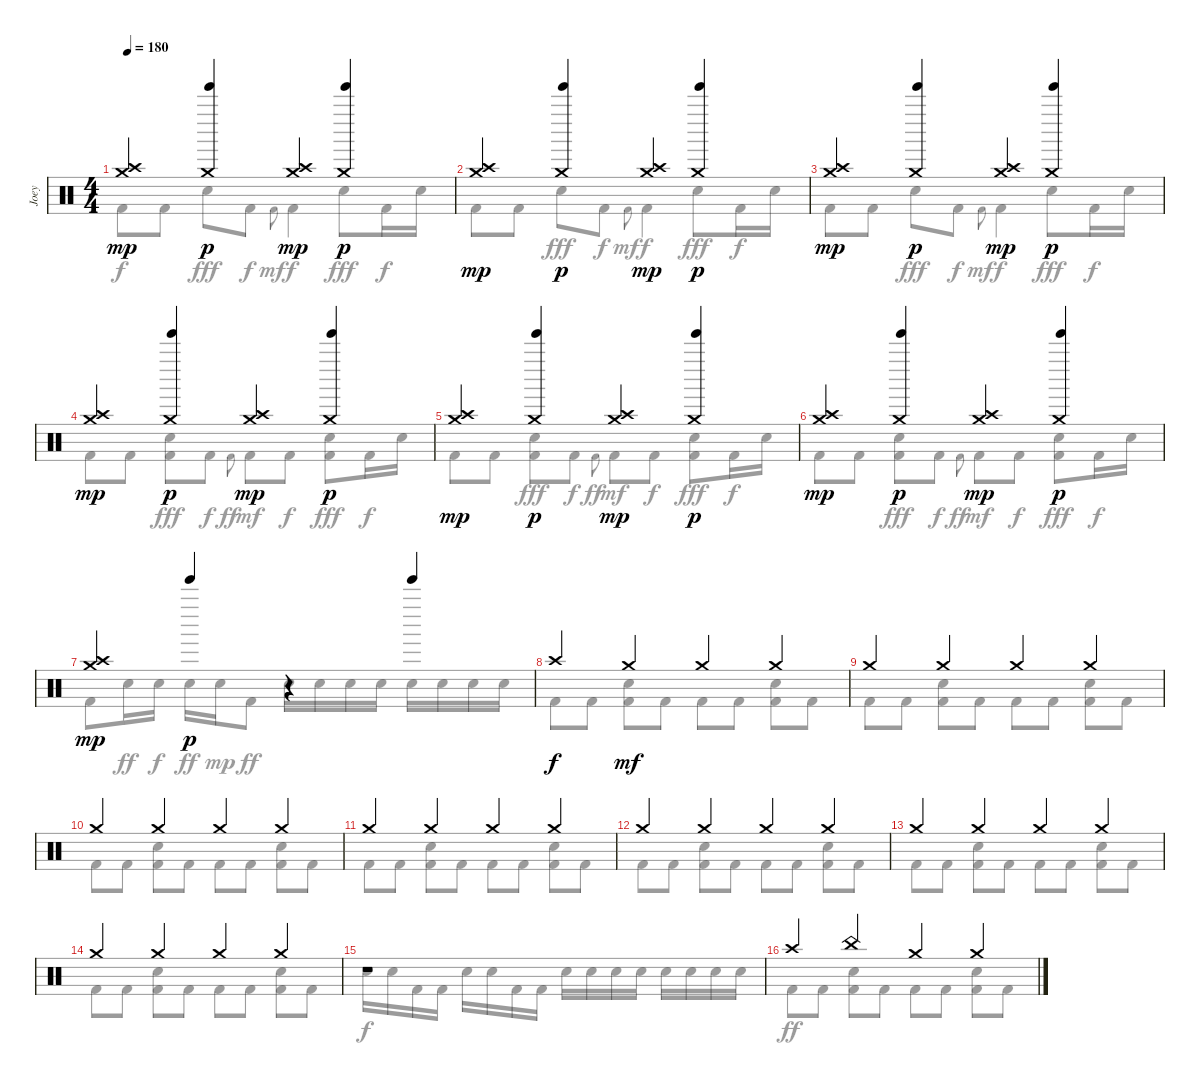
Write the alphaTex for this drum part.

\track ("Joey" "Joey") {instrument percussion}
\staff {score}
\articulation defaults
\voice
\ts (4 4)
\tempo 180
\clef neutral
\ks c
("Crash medium (hit)" "Crash high (hit)").4{dy mp} ("Crash medium (hit)" "Tinkle Bell (hit)").4{dy p} ("Crash medium (hit)" "Crash high (hit)").4{dy mp} ("Crash medium (hit)" "Tinkle Bell (hit)").4{dy p} |
("Crash medium (hit)" "Crash high (hit)").4{dy mp} ("Crash medium (hit)" "Tinkle Bell (hit)").4{dy p} ("Crash medium (hit)" "Crash high (hit)").4{dy mp} ("Crash medium (hit)" "Tinkle Bell (hit)").4{dy p} |
("Crash medium (hit)" "Crash high (hit)").4{dy mp} ("Crash medium (hit)" "Tinkle Bell (hit)").4{dy p} ("Crash medium (hit)" "Crash high (hit)").4{dy mp} ("Crash medium (hit)" "Tinkle Bell (hit)").4{dy p} |
("Crash medium (hit)" "Crash high (hit)").4{dy mp} ("Crash medium (hit)" "Tinkle Bell (hit)").4{dy p} ("Crash medium (hit)" "Crash high (hit)").4{dy mp} ("Crash medium (hit)" "Tinkle Bell (hit)").4{dy p} |
("Crash medium (hit)" "Crash high (hit)").4{dy mp} ("Crash medium (hit)" "Tinkle Bell (hit)").4{dy p} ("Crash medium (hit)" "Crash high (hit)").4{dy mp} ("Crash medium (hit)" "Tinkle Bell (hit)").4{dy p} |
("Crash medium (hit)" "Crash high (hit)").4{dy mp} ("Crash medium (hit)" "Tinkle Bell (hit)").4{dy p} ("Crash medium (hit)" "Crash high (hit)").4{dy mp} ("Crash medium (hit)" "Tinkle Bell (hit)").4{dy p} |
("Crash medium (hit)" "Crash high (hit)").4{dy mp} "Tinkle Bell (hit)".4{dy p} r.4 "Tinkle Bell (hit)".4 |
"Crash high (hit)".4{dy f} "Crash medium (hit)".4{dy mf} "Crash medium (hit)".4 "Crash medium (hit)".4 |
"Crash medium (hit)".4 "Crash medium (hit)".4 "Crash medium (hit)".4 "Crash medium (hit)".4 |
"Crash medium (hit)".4 "Crash medium (hit)".4 "Crash medium (hit)".4 "Crash medium (hit)".4 |
"Crash medium (hit)".4 "Crash medium (hit)".4 "Crash medium (hit)".4 "Crash medium (hit)".4 |
"Crash medium (hit)".4 "Crash medium (hit)".4 "Crash medium (hit)".4 "Crash medium (hit)".4 |
"Crash medium (hit)".4 "Crash medium (hit)".4 "Crash medium (hit)".4 "Crash medium (hit)".4 |
"Crash medium (hit)".4 "Crash medium (hit)".4 "Crash medium (hit)".4 "Crash medium (hit)".4 |
r.1 |
"Crash high (hit)".4 "China (hit)".4 "Crash medium (hit)".4 "Crash medium (hit)".4
\voice
\clef neutral
\ottava regular
\simile none
\ks c "Kick (hit) 2".8{dy f} "Kick (hit) 2".8 "Electric Snare (hit)".8{dy fff} "Kick (hit) 2".8{dy f} "Kick (hit) 2".8{gr onbeat dy mf} "Kick (hit) 2".4{dy f} "Electric Snare (hit)".8{dy fff} "Kick (hit) 2".16{dy f} "Electric Snare (hit)".16
|
"Kick (hit) 2".8 "Kick (hit) 2".8 "Electric Snare (hit)".8{dy fff} "Kick (hit) 2".8{dy f} "Kick (hit) 2".8{gr onbeat dy mf} "Kick (hit) 2".4{dy f} "Electric Snare (hit)".8{dy fff} "Kick (hit) 2".16{dy f} "Electric Snare (hit)".16 |
"Kick (hit) 2".8 "Kick (hit) 2".8 "Electric Snare (hit)".8{dy fff} "Kick (hit) 2".8{dy f} "Kick (hit) 2".8{gr onbeat dy mf} "Kick (hit) 2".4{dy f} "Electric Snare (hit)".8{dy fff} "Kick (hit) 2".16{dy f} "Electric Snare (hit)".16 |
"Kick (hit) 2".8 "Kick (hit) 2".8 ("Electric Snare (hit)" "Kick (hit) 2").8{dy fff} "Kick (hit) 2".8{dy f} "Kick (hit) 2".8{gr onbeat dy ff} "Kick (hit) 2".8{dy mf} "Kick (hit) 2".8{dy f} ("Electric Snare (hit)" "Kick (hit) 2").8{dy fff} "Kick (hit) 2".16{dy f} "Electric Snare (hit)".16 |
"Kick (hit) 2".8 "Kick (hit) 2".8 ("Electric Snare (hit)" "Kick (hit) 2").8{dy fff} "Kick (hit) 2".8{dy f} "Kick (hit) 2".8{gr onbeat dy ff} "Kick (hit) 2".8{dy mf} "Kick (hit) 2".8{dy f} ("Electric Snare (hit)" "Kick (hit) 2").8{dy fff} "Kick (hit) 2".16{dy f} "Electric Snare (hit)".16 |
"Kick (hit) 2".8 "Kick (hit) 2".8 ("Electric Snare (hit)" "Kick (hit) 2").8{dy fff} "Kick (hit) 2".8{dy f} "Kick (hit) 2".8{gr onbeat dy ff} "Kick (hit) 2".8{dy mf} "Kick (hit) 2".8{dy f} ("Electric Snare (hit)" "Kick (hit) 2").8{dy fff} "Kick (hit) 2".16{dy f} "Electric Snare (hit)".16 |
"Kick (hit) 2".8 "Electric Snare (hit)".16{dy ff} "Electric Snare (hit)".16{dy f} "Electric Snare (hit)".16{dy ff} "Electric Snare (hit)".16{dy mp} "Kick (hit) 2".8{dy ff} "Electric Snare (hit)".16 "Electric Snare (hit)".16 "Electric Snare (hit)".16 "Electric Snare (hit)".16 "Electric Snare (hit)".16 "Electric Snare (hit)".16 "Electric Snare (hit)".16 "Electric Snare (hit)".16 |
"Kick (hit) 2".8 "Kick (hit) 2".8 ("Electric Snare (hit)" "Kick (hit) 2").8 "Kick (hit) 2".8 "Kick (hit) 2".8 "Kick (hit) 2".8 ("Electric Snare (hit)" "Kick (hit) 2").8 "Kick (hit) 2".8 |
"Kick (hit) 2".8 "Kick (hit) 2".8 ("Electric Snare (hit)" "Kick (hit) 2").8 "Kick (hit) 2".8 "Kick (hit) 2".8 "Kick (hit) 2".8 ("Electric Snare (hit)" "Kick (hit) 2").8 "Kick (hit) 2".8 |
"Kick (hit) 2".8 "Kick (hit) 2".8 ("Electric Snare (hit)" "Kick (hit) 2").8 "Kick (hit) 2".8 "Kick (hit) 2".8 "Kick (hit) 2".8 ("Electric Snare (hit)" "Kick (hit) 2").8 "Kick (hit) 2".8 |
"Kick (hit) 2".8 "Kick (hit) 2".8 ("Electric Snare (hit)" "Kick (hit) 2").8 "Kick (hit) 2".8 "Kick (hit) 2".8 "Kick (hit) 2".8 ("Electric Snare (hit)" "Kick (hit) 2").8 "Kick (hit) 2".8 |
"Kick (hit) 2".8 "Kick (hit) 2".8 ("Electric Snare (hit)" "Kick (hit) 2").8 "Kick (hit) 2".8 "Kick (hit) 2".8 "Kick (hit) 2".8 ("Electric Snare (hit)" "Kick (hit) 2").8 "Kick (hit) 2".8 |
"Kick (hit) 2".8 "Kick (hit) 2".8 ("Electric Snare (hit)" "Kick (hit) 2").8 "Kick (hit) 2".8 "Kick (hit) 2".8 "Kick (hit) 2".8 ("Electric Snare (hit)" "Kick (hit) 2").8 "Kick (hit) 2".8 |
"Kick (hit) 2".8 "Kick (hit) 2".8 ("Electric Snare (hit)" "Kick (hit) 2").8 "Kick (hit) 2".8 "Kick (hit) 2".8 "Kick (hit) 2".8 ("Electric Snare (hit)" "Kick (hit) 2").8 "Kick (hit) 2".8 |
"Electric Snare (hit)".16{dy f} "Electric Snare (hit)".16 "Kick (hit) 2".16 "Kick (hit) 2".16 "Electric Snare (hit)".16 "Electric Snare (hit)".16 "Kick (hit) 2".16 "Kick (hit) 2".16 "Electric Snare (hit)".16 "Electric Snare (hit)".16 "Electric Snare (hit)".16 "Electric Snare (hit)".16 "Electric Snare (hit)".16 "Electric Snare (hit)".16 "Electric Snare (hit)".16 "Electric Snare (hit)".16 |
"Kick (hit) 2".8{dy ff} "Kick (hit) 2".8 ("Electric Snare (hit)" "Kick (hit) 2").8 "Kick (hit) 2".8 "Kick (hit) 2".8 "Kick (hit) 2".8 ("Electric Snare (hit)" "Kick (hit) 2").8 "Kick (hit) 2".8
